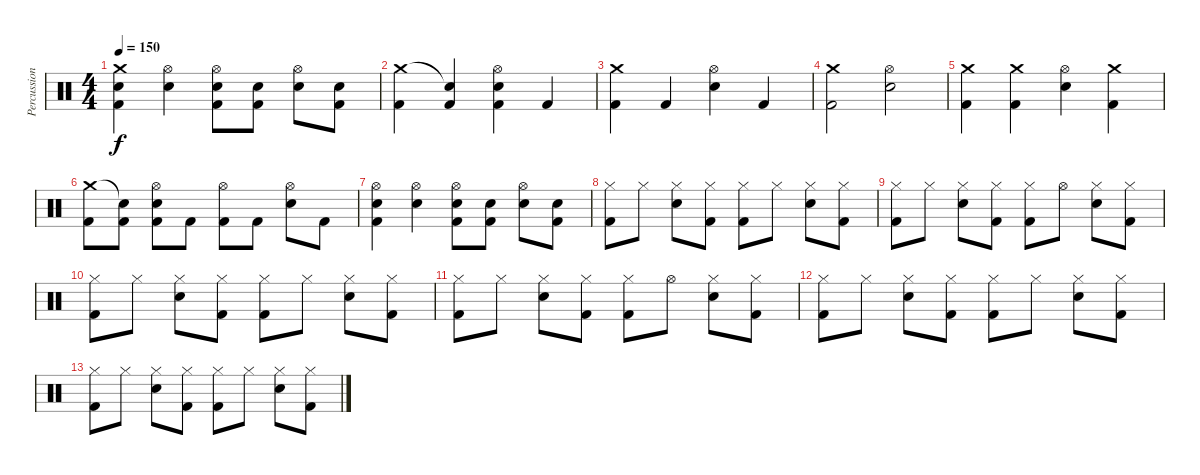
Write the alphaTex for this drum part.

\track ("Percussion" "Percussion") {instrument percussion}
\staff {score}
\articulation defaults
\ts (4 4)
\tempo 150
\clef neutral
\ks c
("Crash medium (hit)" "Electric Snare (hit)" "Kick (hit) 2").4{dy f} ("Hi-Hat (open)" "Electric Snare (hit)").4 ("Hi-Hat (open)" "Electric Snare (hit)" "Kick (hit) 2").8 ("Electric Snare (hit)" "Kick (hit) 2").8 ("Hi-Hat (open)" "Electric Snare (hit)").8 ("Electric Snare (hit)" "Kick (hit) 2").8 |
("Crash medium (hit)" "Kick (hit) 2").4 ("Snare (hit)"{t} "Kick (hit) 2").4 ("Hi-Hat (open)" "Electric Snare (hit)" "Kick (hit) 2").4 "Kick (hit) 2".4 |
("Crash medium (hit)" "Kick (hit) 2").4 "Kick (hit) 2".4 ("Hi-Hat (open)" "Electric Snare (hit)").4 "Kick (hit) 2".4 |
("Crash medium (hit)" "Kick (hit) 2").2 ("Hi-Hat (open)" "Electric Snare (hit)").2 |
("Crash medium (hit)" "Kick (hit) 2").4 ("Crash medium (hit)" "Kick (hit) 2").4 ("Hi-Hat (open)" "Electric Snare (hit)").4 ("Crash medium (hit)" "Kick (hit) 2").4 |
("Crash medium (hit)" "Kick (hit) 2").8 ("Snare (hit)"{t} "Kick (hit) 2").8 ("Hi-Hat (open)" "Electric Snare (hit)" "Kick (hit) 2").8 "Kick (hit) 2".8 ("Hi-Hat (open)" "Kick (hit) 2").8 "Kick (hit) 2".8 ("Hi-Hat (open)" "Electric Snare (hit)").8 "Kick (hit) 2".8 |
("Hi-Hat (open)" "Electric Snare (hit)" "Kick (hit) 2").4 ("Hi-Hat (open)" "Electric Snare (hit)").4 ("Hi-Hat (open)" "Electric Snare (hit)" "Kick (hit) 2").8 ("Electric Snare (hit)" "Kick (hit) 2").8 ("Hi-Hat (open)" "Electric Snare (hit)").8 ("Electric Snare (hit)" "Kick (hit) 2").8 |
("Hi-Hat (closed)" "Kick (hit) 2").8 "Hi-Hat (closed)".8 ("Hi-Hat (closed)" "Electric Snare (hit)").8 ("Hi-Hat (closed)" "Kick (hit) 2").8 ("Hi-Hat (closed)" "Kick (hit) 2").8 "Hi-Hat (closed)".8 ("Hi-Hat (closed)" "Electric Snare (hit)").8 ("Hi-Hat (closed)" "Kick (hit) 2").8 |
("Hi-Hat (closed)" "Kick (hit) 2").8 "Hi-Hat (closed)".8 ("Hi-Hat (closed)" "Electric Snare (hit)").8 ("Hi-Hat (closed)" "Kick (hit) 2").8 ("Hi-Hat (closed)" "Kick (hit) 2").8 "Hi-Hat (open)".8 ("Hi-Hat (closed)" "Electric Snare (hit)").8 ("Hi-Hat (closed)" "Kick (hit) 2").8 |
("Hi-Hat (closed)" "Kick (hit) 2").8 "Hi-Hat (closed)".8 ("Hi-Hat (closed)" "Electric Snare (hit)").8 ("Hi-Hat (closed)" "Kick (hit) 2").8 ("Hi-Hat (closed)" "Kick (hit) 2").8 "Hi-Hat (closed)".8 ("Hi-Hat (closed)" "Electric Snare (hit)").8 ("Hi-Hat (closed)" "Kick (hit) 2").8 |
("Hi-Hat (closed)" "Kick (hit) 2").8 "Hi-Hat (closed)".8 ("Hi-Hat (closed)" "Electric Snare (hit)").8 ("Hi-Hat (closed)" "Kick (hit) 2").8 ("Hi-Hat (closed)" "Kick (hit) 2").8 "Hi-Hat (open)".8 ("Hi-Hat (closed)" "Electric Snare (hit)").8 ("Hi-Hat (closed)" "Kick (hit) 2").8 |
("Hi-Hat (closed)" "Kick (hit) 2").8 "Hi-Hat (closed)".8 ("Hi-Hat (closed)" "Electric Snare (hit)").8 ("Hi-Hat (closed)" "Kick (hit) 2").8 ("Hi-Hat (closed)" "Kick (hit) 2").8 "Hi-Hat (closed)".8 ("Hi-Hat (closed)" "Electric Snare (hit)").8 ("Hi-Hat (closed)" "Kick (hit) 2").8 |
("Hi-Hat (closed)" "Kick (hit) 2").8 "Hi-Hat (closed)".8 ("Hi-Hat (closed)" "Electric Snare (hit)").8 ("Hi-Hat (closed)" "Kick (hit) 2").8 ("Hi-Hat (closed)" "Kick (hit) 2").8 "Hi-Hat (closed)".8 ("Hi-Hat (closed)" "Electric Snare (hit)").8 ("Hi-Hat (closed)" "Kick (hit) 2").8
